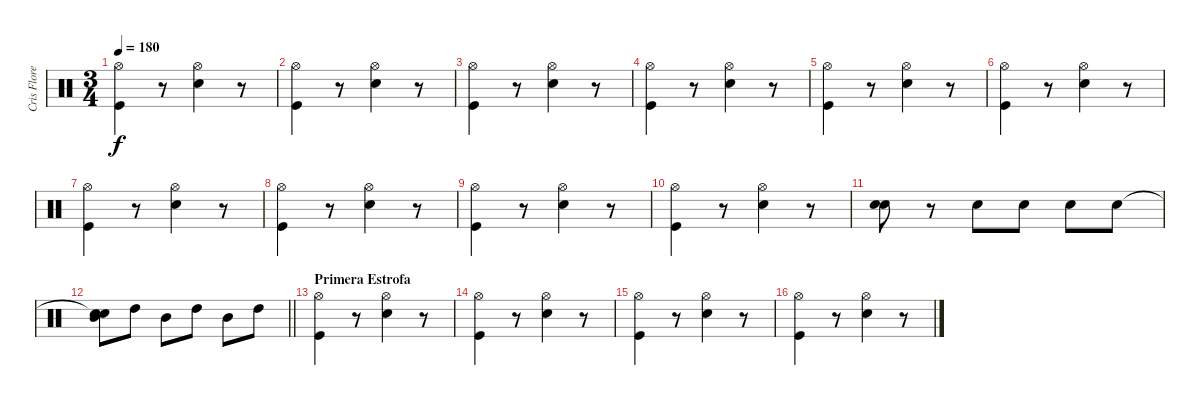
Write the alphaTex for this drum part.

\track ("Cris Flores" "Cris Flore") {instrument percussion}
\staff {score}
\articulation defaults
\ts (3 4)
\tempo 180
\clef neutral
\ks c
("Kick (hit)" "Hi-Hat (open)").4{dy f} r.8 ("Snare (hit) 2" "Hi-Hat (open)").4 r.8 |
("Kick (hit)" "Hi-Hat (open)").4 r.8 ("Snare (hit) 2" "Hi-Hat (open)").4 r.8 |
("Kick (hit)" "Hi-Hat (open)").4 r.8 ("Snare (hit) 2" "Hi-Hat (open)").4 r.8 |
("Kick (hit)" "Hi-Hat (open)").4 r.8 ("Snare (hit) 2" "Hi-Hat (open)").4 r.8 |
("Kick (hit)" "Hi-Hat (open)").4 r.8 ("Snare (hit) 2" "Hi-Hat (open)").4 r.8 |
("Kick (hit)" "Hi-Hat (open)").4 r.8 ("Snare (hit) 2" "Hi-Hat (open)").4 r.8 |
("Kick (hit)" "Hi-Hat (open)").4 r.8 ("Snare (hit) 2" "Hi-Hat (open)").4 r.8 |
("Kick (hit)" "Hi-Hat (open)").4 r.8 ("Snare (hit) 2" "Hi-Hat (open)").4 r.8 |
("Kick (hit)" "Hi-Hat (open)").4 r.8 ("Snare (hit) 2" "Hi-Hat (open)").4 r.8 |
("Kick (hit)" "Hi-Hat (open)").4 r.8 ("Snare (hit) 2" "Hi-Hat (open)").4 r.8 |
("Electric Snare (hit)" "Snare (hit) 2").8 r.8 "Snare (hit) 2".8 "Snare (hit) 2".8 "Snare (hit) 2".8 "Snare (hit) 2".8 |
\barLineRight lightlight
("Snare (hit)"{t} "Mid Tom (hit)" "Snare (hit)").8 "High Tom (hit)".8 "Mid Tom (hit)".8 "High Tom (hit)".8 "Mid Tom (hit)".8 "High Tom (hit)".8 |
\section ("" "Primera Estrofa")
("Kick (hit)" "Hi-Hat (open)").4 r.8 ("Snare (hit) 2" "Hi-Hat (open)").4 r.8 |
("Kick (hit)" "Hi-Hat (open)").4 r.8 ("Snare (hit) 2" "Hi-Hat (open)").4 r.8 |
("Kick (hit)" "Hi-Hat (open)").4 r.8 ("Snare (hit) 2" "Hi-Hat (open)").4 r.8 |
("Kick (hit)" "Hi-Hat (open)").4 r.8 ("Snare (hit) 2" "Hi-Hat (open)").4 r.8
